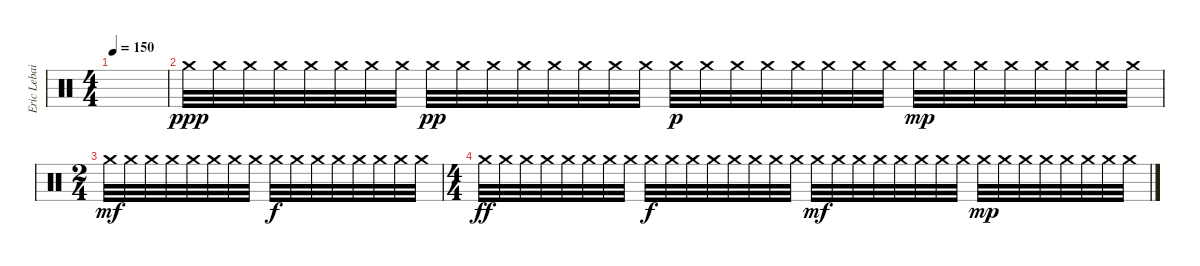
\track ("Eric Lebailly - Drums" "Eric Lebai") {instrument percussion}
\staff {score}
\articulation defaults
\ts (4 4)
\tempo 150
\clef neutral
\ks c
|
"Crash medium (hit)".32{dy ppp} "Crash medium (hit)".32 "Crash medium (hit)".32 "Crash medium (hit)".32 "Crash medium (hit)".32 "Crash medium (hit)".32 "Crash medium (hit)".32 "Crash medium (hit)".32 "Crash medium (hit)".32{dy pp} "Crash medium (hit)".32 "Crash medium (hit)".32 "Crash medium (hit)".32 "Crash medium (hit)".32 "Crash medium (hit)".32 "Crash medium (hit)".32 "Crash medium (hit)".32 "Crash medium (hit)".32{dy p} "Crash medium (hit)".32 "Crash medium (hit)".32 "Crash medium (hit)".32 "Crash medium (hit)".32 "Crash medium (hit)".32 "Crash medium (hit)".32 "Crash medium (hit)".32 "Crash medium (hit)".32{dy mp} "Crash medium (hit)".32 "Crash medium (hit)".32 "Crash medium (hit)".32 "Crash medium (hit)".32 "Crash medium (hit)".32 "Crash medium (hit)".32 "Crash medium (hit)".32 |
\ts (2 4)
"Crash medium (hit)".32{dy mf} "Crash medium (hit)".32 "Crash medium (hit)".32 "Crash medium (hit)".32 "Crash medium (hit)".32 "Crash medium (hit)".32 "Crash medium (hit)".32 "Crash medium (hit)".32 "Crash medium (hit)".32{dy f} "Crash medium (hit)".32 "Crash medium (hit)".32 "Crash medium (hit)".32 "Crash medium (hit)".32 "Crash medium (hit)".32 "Crash medium (hit)".32 "Crash medium (hit)".32 |
\ts (4 4)
"Crash medium (hit)".32{dy ff} "Crash medium (hit)".32 "Crash medium (hit)".32 "Crash medium (hit)".32 "Crash medium (hit)".32 "Crash medium (hit)".32 "Crash medium (hit)".32 "Crash medium (hit)".32 "Crash medium (hit)".32{dy f} "Crash medium (hit)".32 "Crash medium (hit)".32 "Crash medium (hit)".32 "Crash medium (hit)".32 "Crash medium (hit)".32 "Crash medium (hit)".32 "Crash medium (hit)".32 "Crash medium (hit)".32{dy mf} "Crash medium (hit)".32 "Crash medium (hit)".32 "Crash medium (hit)".32 "Crash medium (hit)".32 "Crash medium (hit)".32 "Crash medium (hit)".32 "Crash medium (hit)".32 "Crash medium (hit)".32{dy mp} "Crash medium (hit)".32 "Crash medium (hit)".32 "Crash medium (hit)".32 "Crash medium (hit)".32 "Crash medium (hit)".32 "Crash medium (hit)".32 "Crash medium (hit)".32
